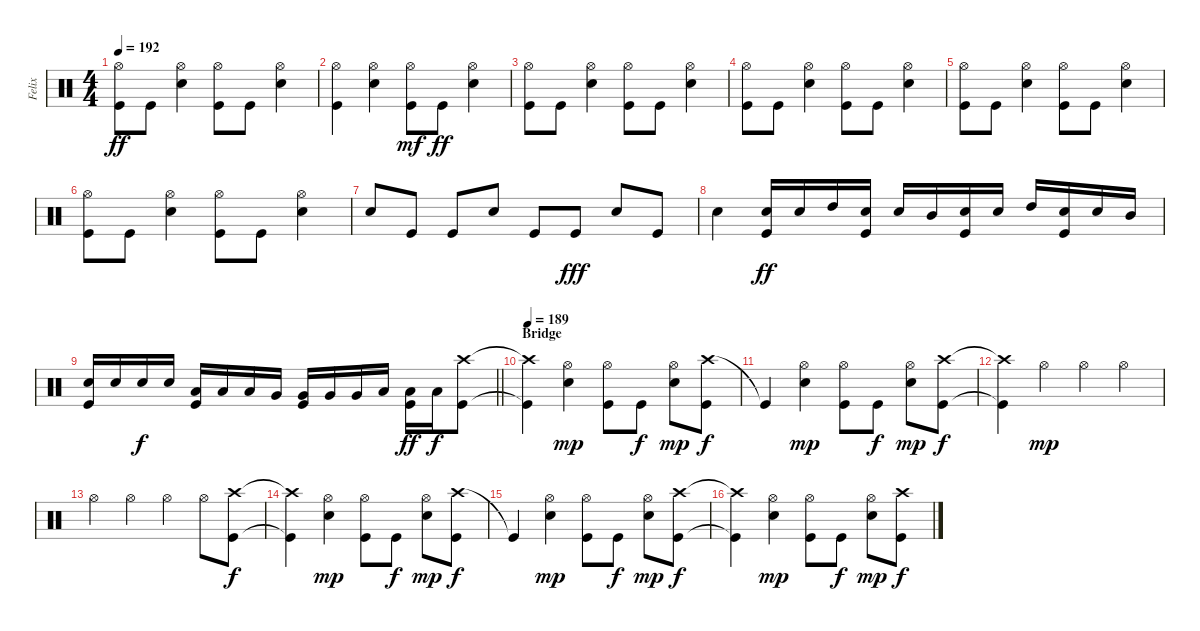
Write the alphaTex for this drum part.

\track ("Felix" "Felix") {instrument percussion}
\staff {score}
\articulation defaults
\ts (4 4)
\tempo 192
\clef neutral
\ks c
("Hi-Hat (open)" "Kick (hit)").8{dy ff} "Kick (hit)".8 ("Hi-Hat (open)" "Snare (hit) 2").4 ("Hi-Hat (open)" "Kick (hit)").8 "Kick (hit)".8 ("Hi-Hat (open)" "Snare (hit) 2").4 |
("Hi-Hat (open)" "Kick (hit)").4 ("Hi-Hat (open)" "Snare (hit) 2").4 ("Hi-Hat (open)" "Kick (hit)").8{dy mf} "Kick (hit)".8{dy ff} ("Hi-Hat (open)" "Snare (hit) 2").4 |
("Hi-Hat (open)" "Kick (hit)").8 "Kick (hit)".8 ("Hi-Hat (open)" "Snare (hit) 2").4 ("Hi-Hat (open)" "Kick (hit)").8 "Kick (hit)".8 ("Hi-Hat (open)" "Snare (hit) 2").4 |
("Hi-Hat (open)" "Kick (hit)").8 "Kick (hit)".8 ("Hi-Hat (open)" "Snare (hit) 2").4 ("Hi-Hat (open)" "Kick (hit)").8 "Kick (hit)".8 ("Hi-Hat (open)" "Snare (hit) 2").4 |
("Hi-Hat (open)" "Kick (hit)").8 "Kick (hit)".8 ("Hi-Hat (open)" "Snare (hit) 2").4 ("Hi-Hat (open)" "Kick (hit)").8 "Kick (hit)".8 ("Hi-Hat (open)" "Snare (hit) 2").4 |
("Hi-Hat (open)" "Kick (hit)").8 "Kick (hit)".8 ("Hi-Hat (open)" "Snare (hit) 2").4 ("Hi-Hat (open)" "Kick (hit)").8 "Kick (hit)".8 ("Hi-Hat (open)" "Snare (hit) 2").4 |
"Snare (hit) 2".8 "Kick (hit)".8 "Kick (hit)".8 "Snare (hit) 2".8 "Kick (hit)".8 "Kick (hit)".8{dy fff} "Snare (hit) 2".8 "Kick (hit)".8 |
"Snare (hit) 2".4 ("Snare (hit) 2" "Kick (hit)").16{dy ff} "Snare (hit) 2".16 "High Tom (hit)".16 ("Snare (hit) 2" "Kick (hit)").16 "Snare (hit) 2".16 "Mid Tom (hit)".16 ("Snare (hit) 2" "Kick (hit)").16 "Snare (hit) 2".16 "High Tom (hit)".16 ("Snare (hit) 2" "Kick (hit)").16 "Snare (hit) 2".16 "Mid Tom (hit)".16 |
\barLineRight lightlight
("Snare (hit) 2" "Kick (hit)").16 "Snare (hit) 2".16 "Snare (hit) 2".16{dy f} "Snare (hit) 2".16 ("Low Tom (hit)" "Kick (hit)").16 "Low Tom (hit)".16 "Low Tom (hit)".16 "Very Low Tom (hit)".16 ("Very Low Tom (hit)" "Kick (hit)").16 "Very Low Tom (hit)".16 "Very Low Tom (hit)".16 "Low Floor Tom (hit)".16 ("Low Floor Tom (hit)" "Kick (hit)").16{dy ff} "Low Floor Tom (hit)".16{dy f} ("Crash high (hit)" "Kick (hit)").8 |
\section ("" "Bridge")
\tempo 189
("Crash high (hit)"{t} "Kick (hit)"{t}).4 ("Hi-Hat (open)" "Snare (hit) 2").4{dy mp} ("Hi-Hat (open)" "Kick (hit)").8 "Kick (hit)".8{dy f} ("Hi-Hat (open)" "Snare (hit) 2").8{dy mp} ("Crash high (hit)" "Kick (hit)").8{dy f} |
"Kick (hit)"{t}.4 ("Hi-Hat (open)" "Snare (hit) 2").4{dy mp} ("Hi-Hat (open)" "Kick (hit)").8 "Kick (hit)".8{dy f} ("Hi-Hat (open)" "Snare (hit) 2").8{dy mp} ("Crash high (hit)" "Kick (hit)").8{dy f} |
("Crash high (hit)"{t} "Kick (hit)"{t}).4 "Hi-Hat (open)".4{dy mp} "Hi-Hat (open)".4 "Hi-Hat (open)".4 |
"Hi-Hat (open)".4 "Hi-Hat (open)".4 "Hi-Hat (open)".4 "Hi-Hat (open)".8 ("Crash high (hit)" "Kick (hit)").8{dy f} |
("Crash high (hit)"{t} "Kick (hit)"{t}).4 ("Hi-Hat (open)" "Snare (hit) 2").4{dy mp} ("Hi-Hat (open)" "Kick (hit)").8 "Kick (hit)".8{dy f} ("Hi-Hat (open)" "Snare (hit) 2").8{dy mp} ("Crash high (hit)" "Kick (hit)").8{dy f} |
"Kick (hit)"{t}.4 ("Hi-Hat (open)" "Snare (hit) 2").4{dy mp} ("Hi-Hat (open)" "Kick (hit)").8 "Kick (hit)".8{dy f} ("Hi-Hat (open)" "Snare (hit) 2").8{dy mp} ("Crash high (hit)" "Kick (hit)").8{dy f} |
("Crash high (hit)"{t} "Kick (hit)"{t}).4 ("Hi-Hat (open)" "Snare (hit) 2").4{dy mp} ("Hi-Hat (open)" "Kick (hit)").8 "Kick (hit)".8{dy f} ("Hi-Hat (open)" "Snare (hit) 2").8{dy mp} ("Crash high (hit)" "Kick (hit)").8{dy f}
